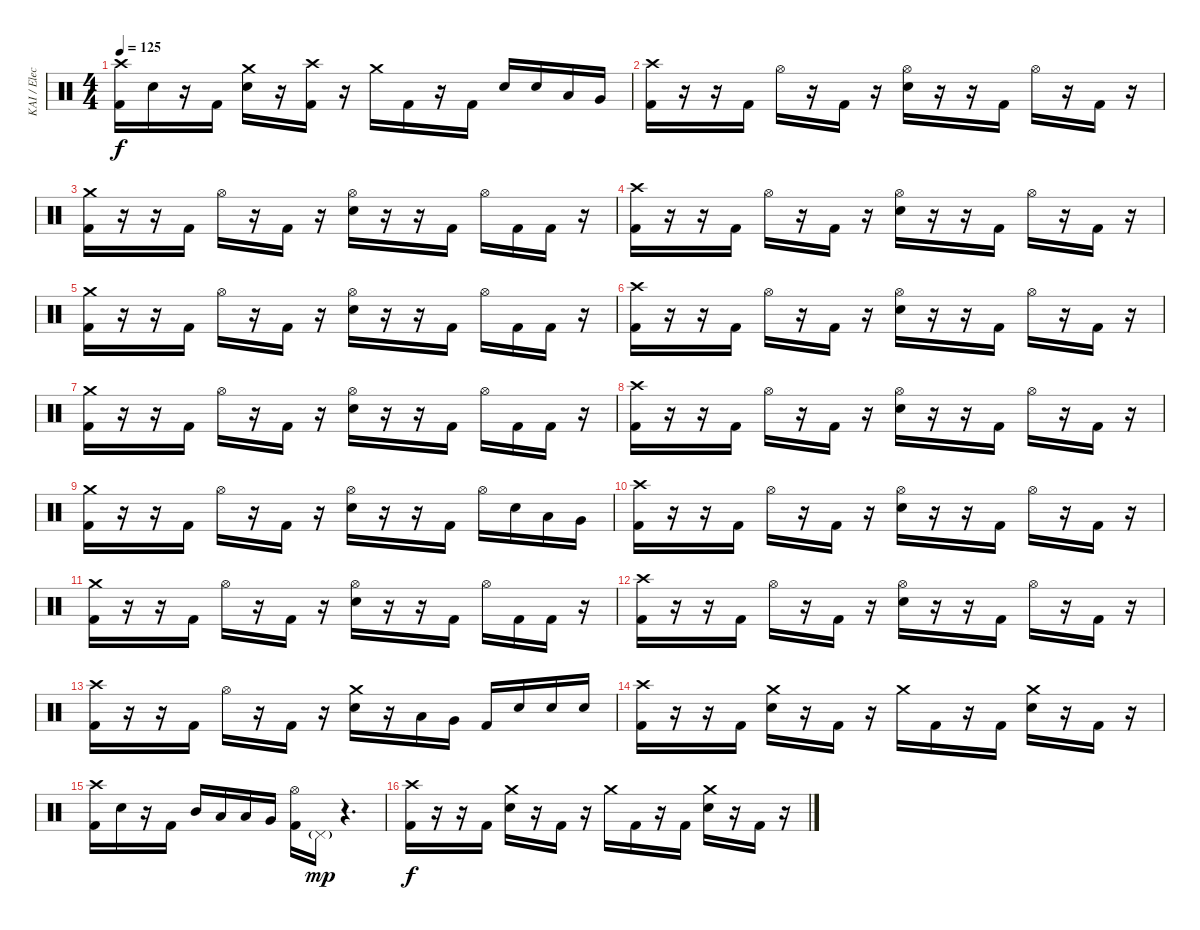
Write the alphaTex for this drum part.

\track ("KAI / Elect. Drums" "KAI / Elec") {instrument percussion}
\staff {score}
\articulation defaults
\ts (4 4)
\tempo 125
\clef neutral
\ks c
("Crash high (hit)" "Kick (hit) 2").16{dy f} "Electric Snare (hit)".16 r.16 "Kick (hit) 2".16 ("Crash medium (hit)" "Electric Snare (hit)").16 r.16 ("Crash high (hit)" "Kick (hit) 2").16 r.16 "Crash medium (hit)".16 "Kick (hit) 2".16 r.16 "Kick (hit) 2".16 "Electric Snare (hit)".16 "Electric Snare (hit)".16 "Low Tom (hit)".16 "Very Low Tom (hit)".16 |
("Crash high (hit)" "Kick (hit) 2").16 r.16 r.16 "Kick (hit) 2".16 "Hi-Hat (open)".16 r.16 "Kick (hit) 2".16 r.16 ("Hi-Hat (open)" "Electric Snare (hit)").16 r.16 r.16 "Kick (hit) 2".16 "Hi-Hat (open)".16 r.16 "Kick (hit) 2".16 r.16 |
("Crash medium (hit)" "Kick (hit) 2").16 r.16 r.16 "Kick (hit) 2".16 "Hi-Hat (open)".16 r.16 "Kick (hit) 2".16 r.16 ("Hi-Hat (open)" "Electric Snare (hit)").16 r.16 r.16 "Kick (hit) 2".16 "Hi-Hat (open)".16 "Kick (hit) 2".16 "Kick (hit) 2".16 r.16 |
("Crash high (hit)" "Kick (hit) 2").16 r.16 r.16 "Kick (hit) 2".16 "Hi-Hat (open)".16 r.16 "Kick (hit) 2".16 r.16 ("Hi-Hat (open)" "Electric Snare (hit)").16 r.16 r.16 "Kick (hit) 2".16 "Hi-Hat (open)".16 r.16 "Kick (hit) 2".16 r.16 |
("Crash medium (hit)" "Kick (hit) 2").16 r.16 r.16 "Kick (hit) 2".16 "Hi-Hat (open)".16 r.16 "Kick (hit) 2".16 r.16 ("Hi-Hat (open)" "Electric Snare (hit)").16 r.16 r.16 "Kick (hit) 2".16 "Hi-Hat (open)".16 "Kick (hit) 2".16 "Kick (hit) 2".16 r.16 |
("Crash high (hit)" "Kick (hit) 2").16 r.16 r.16 "Kick (hit) 2".16 "Hi-Hat (open)".16 r.16 "Kick (hit) 2".16 r.16 ("Hi-Hat (open)" "Electric Snare (hit)").16 r.16 r.16 "Kick (hit) 2".16 "Hi-Hat (open)".16 r.16 "Kick (hit) 2".16 r.16 |
("Crash medium (hit)" "Kick (hit) 2").16 r.16 r.16 "Kick (hit) 2".16 "Hi-Hat (open)".16 r.16 "Kick (hit) 2".16 r.16 ("Hi-Hat (open)" "Electric Snare (hit)").16 r.16 r.16 "Kick (hit) 2".16 "Hi-Hat (open)".16 "Kick (hit) 2".16 "Kick (hit) 2".16 r.16 |
("Crash high (hit)" "Kick (hit) 2").16 r.16 r.16 "Kick (hit) 2".16 "Hi-Hat (open)".16 r.16 "Kick (hit) 2".16 r.16 ("Hi-Hat (open)" "Electric Snare (hit)").16 r.16 r.16 "Kick (hit) 2".16 "Hi-Hat (open)".16 r.16 "Kick (hit) 2".16 r.16 |
("Crash medium (hit)" "Kick (hit) 2").16 r.16 r.16 "Kick (hit) 2".16 "Hi-Hat (open)".16 r.16 "Kick (hit) 2".16 r.16 ("Hi-Hat (open)" "Electric Snare (hit)").16 r.16 r.16 "Kick (hit) 2".16 "Hi-Hat (open)".16 "Electric Snare (hit)".16 "Low Tom (hit)".16 "Very Low Tom (hit)".16 |
("Crash high (hit)" "Kick (hit) 2").16 r.16 r.16 "Kick (hit) 2".16 "Hi-Hat (open)".16 r.16 "Kick (hit) 2".16 r.16 ("Hi-Hat (open)" "Electric Snare (hit)").16 r.16 r.16 "Kick (hit) 2".16 "Hi-Hat (open)".16 r.16 "Kick (hit) 2".16 r.16 |
("Crash medium (hit)" "Kick (hit) 2").16 r.16 r.16 "Kick (hit) 2".16 "Hi-Hat (open)".16 r.16 "Kick (hit) 2".16 r.16 ("Hi-Hat (open)" "Electric Snare (hit)").16 r.16 r.16 "Kick (hit) 2".16 "Hi-Hat (open)".16 "Kick (hit) 2".16 "Kick (hit) 2".16 r.16 |
("Crash high (hit)" "Kick (hit) 2").16 r.16 r.16 "Kick (hit) 2".16 "Hi-Hat (open)".16 r.16 "Kick (hit) 2".16 r.16 ("Hi-Hat (open)" "Electric Snare (hit)").16 r.16 r.16 "Kick (hit) 2".16 "Hi-Hat (open)".16 r.16 "Kick (hit) 2".16 r.16 |
("Crash high (hit)" "Kick (hit) 2").16 r.16 r.16 "Kick (hit) 2".16 "Hi-Hat (open)".16 r.16 "Kick (hit) 2".16 r.16 ("Crash medium (hit)" "Electric Snare (hit)").16 r.16 "Low Tom (hit)".16 "Very Low Tom (hit)".16 "Kick (hit) 2".16 "Electric Snare (hit)".16 "Electric Snare (hit)".16 "Electric Snare (hit)".16 |
("Crash high (hit)" "Kick (hit) 2").16 r.16 r.16 "Kick (hit) 2".16 ("Crash medium (hit)" "Electric Snare (hit)").16 r.16 "Kick (hit) 2".16 r.16 "Crash medium (hit)".16 "Kick (hit) 2".16 r.16 "Kick (hit) 2".16 ("Crash medium (hit)" "Electric Snare (hit)").16 r.16 "Kick (hit) 2".16 r.16 |
("Crash high (hit)" "Kick (hit) 2").16 "Electric Snare (hit)".16 r.16 "Kick (hit) 2".16 "Mid Tom (hit)".16 "Low Tom (hit)".16 "Low Tom (hit)".16 "Very Low Tom (hit)".16 ("Hi-Hat (open)" "Kick (hit) 2").16 "Pedal Hi-Hat (hit)"{g}.16{dy mp} r.4{d} |
("Crash high (hit)" "Kick (hit) 2").16{dy f} r.16 r.16 "Kick (hit) 2".16 ("Crash medium (hit)" "Electric Snare (hit)").16 r.16 "Kick (hit) 2".16 r.16 "Crash medium (hit)".16 "Kick (hit) 2".16 r.16 "Kick (hit) 2".16 ("Crash medium (hit)" "Electric Snare (hit)").16 r.16 "Kick (hit) 2".16 r.16
